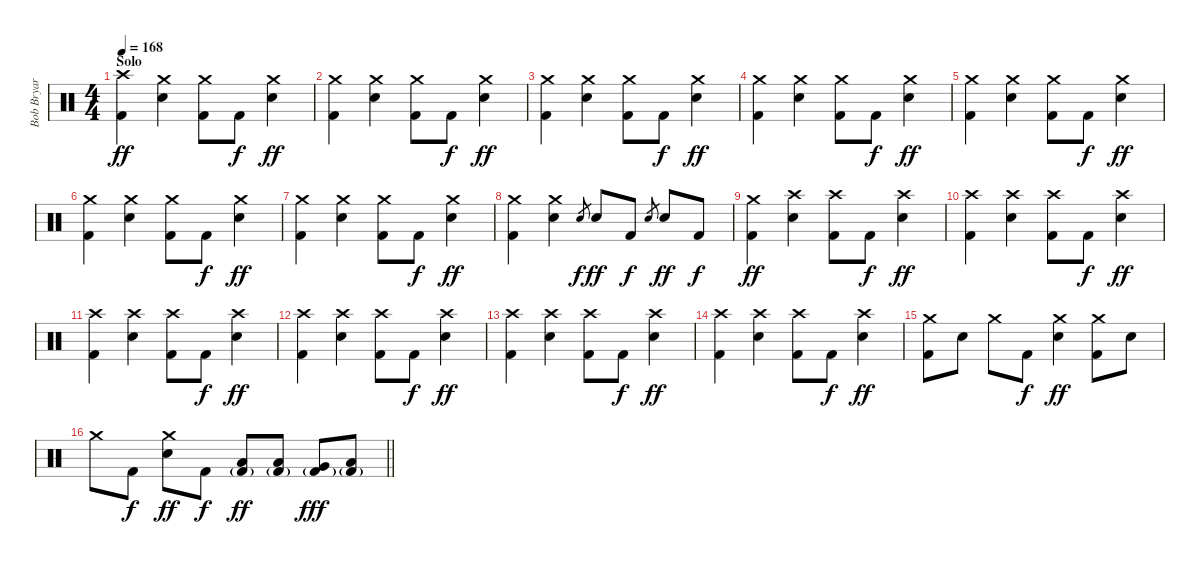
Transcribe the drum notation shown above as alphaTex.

\track ("Bob Bryar" "Bob Bryar") {instrument percussion}
\staff {score}
\articulation defaults
\ts (4 4)
\section ("" "Solo")
\tempo 168
\clef neutral
\ks c
("Crash high (hit)" "Kick (hit) 2").4{dy ff} ("Crash medium (hit)" "Electric Snare (hit)").4 ("Crash medium (hit)" "Kick (hit) 2").8 "Kick (hit) 2".8{dy f} ("Crash medium (hit)" "Electric Snare (hit)").4{dy ff} |
("Crash medium (hit)" "Kick (hit) 2").4 ("Crash medium (hit)" "Electric Snare (hit)").4 ("Crash medium (hit)" "Kick (hit) 2").8 "Kick (hit) 2".8{dy f} ("Crash medium (hit)" "Electric Snare (hit)").4{dy ff} |
("Crash medium (hit)" "Kick (hit) 2").4 ("Crash medium (hit)" "Electric Snare (hit)").4 ("Crash medium (hit)" "Kick (hit) 2").8 "Kick (hit) 2".8{dy f} ("Crash medium (hit)" "Electric Snare (hit)").4{dy ff} |
("Crash medium (hit)" "Kick (hit) 2").4 ("Crash medium (hit)" "Electric Snare (hit)").4 ("Crash medium (hit)" "Kick (hit) 2").8 "Kick (hit) 2".8{dy f} ("Crash medium (hit)" "Electric Snare (hit)").4{dy ff} |
("Crash medium (hit)" "Kick (hit) 2").4 ("Crash medium (hit)" "Electric Snare (hit)").4 ("Crash medium (hit)" "Kick (hit) 2").8 "Kick (hit) 2".8{dy f} ("Crash medium (hit)" "Electric Snare (hit)").4{dy ff} |
("Crash medium (hit)" "Kick (hit) 2").4 ("Crash medium (hit)" "Electric Snare (hit)").4 ("Crash medium (hit)" "Kick (hit) 2").8 "Kick (hit) 2".8{dy f} ("Crash medium (hit)" "Electric Snare (hit)").4{dy ff} |
("Crash medium (hit)" "Kick (hit) 2").4 ("Crash medium (hit)" "Electric Snare (hit)").4 ("Crash medium (hit)" "Kick (hit) 2").8 "Kick (hit) 2".8{dy f} ("Crash medium (hit)" "Electric Snare (hit)").4{dy ff} |
("Crash medium (hit)" "Kick (hit) 2").4 ("Crash medium (hit)" "Electric Snare (hit)").4 "Electric Snare (hit)".8{gr dy f} "Electric Snare (hit)".8{dy ff} "Kick (hit) 2".8{dy f} "Electric Snare (hit)".8{gr} "Electric Snare (hit)".8{dy ff} "Kick (hit) 2".8{dy f} |
("Crash medium (hit)" "Kick (hit) 2").4{dy ff} ("Crash high (hit)" "Electric Snare (hit)").4 ("Crash high (hit)" "Kick (hit) 2").8 "Kick (hit) 2".8{dy f} ("Crash high (hit)" "Electric Snare (hit)").4{dy ff} |
("Crash high (hit)" "Kick (hit) 2").4 ("Crash high (hit)" "Electric Snare (hit)").4 ("Crash high (hit)" "Kick (hit) 2").8 "Kick (hit) 2".8{dy f} ("Crash high (hit)" "Electric Snare (hit)").4{dy ff} |
("Crash high (hit)" "Kick (hit) 2").4 ("Crash high (hit)" "Electric Snare (hit)").4 ("Crash high (hit)" "Kick (hit) 2").8 "Kick (hit) 2".8{dy f} ("Crash high (hit)" "Electric Snare (hit)").4{dy ff} |
("Crash high (hit)" "Kick (hit) 2").4 ("Crash high (hit)" "Electric Snare (hit)").4 ("Crash high (hit)" "Kick (hit) 2").8 "Kick (hit) 2".8{dy f} ("Crash high (hit)" "Electric Snare (hit)").4{dy ff} |
("Crash high (hit)" "Kick (hit) 2").4 ("Crash high (hit)" "Electric Snare (hit)").4 ("Crash high (hit)" "Kick (hit) 2").8 "Kick (hit) 2".8{dy f} ("Crash high (hit)" "Electric Snare (hit)").4{dy ff} |
("Crash high (hit)" "Kick (hit) 2").4 ("Crash high (hit)" "Electric Snare (hit)").4 ("Crash high (hit)" "Kick (hit) 2").8 "Kick (hit) 2".8{dy f} ("Crash high (hit)" "Electric Snare (hit)").4{dy ff} |
("Crash medium (hit)" "Kick (hit) 2").8 "Electric Snare (hit)".8 "Crash medium (hit)".8 "Kick (hit) 2".8{dy f} ("Crash medium (hit)" "Electric Snare (hit)").4{dy ff} ("Crash medium (hit)" "Kick (hit) 2").8 "Electric Snare (hit)".8 |
\barLineRight lightlight "Crash medium (hit)".8 "Kick (hit) 2".8{dy f}
("Crash medium (hit)" "Electric Snare (hit)").8{dy ff} "Kick (hit) 2".8{dy f} ("Low Tom (hit)" "Kick (hit) 2"{g}).8{dy ff volume 16} ("Low Tom (hit)" "Kick (hit) 2"{g}).8 ("Very Low Tom (hit)" "Kick (hit) 2"{g}).8{dy fff} ("Low Floor Tom (hit)" "Kick (hit) 2"{g}).8
